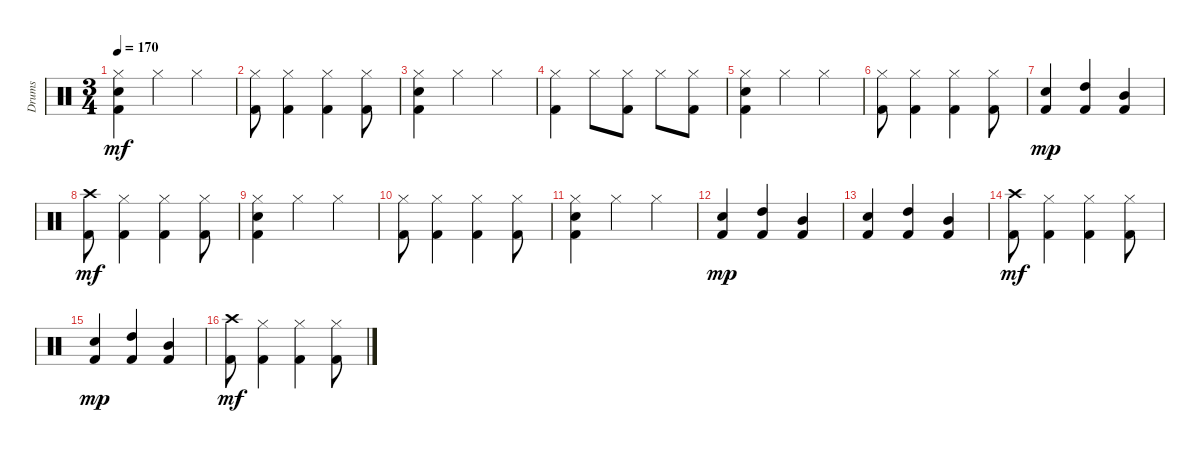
\track ("Drums" "Drums") {instrument percussion}
\staff {score}
\articulation defaults
\ts (3 4)
\tempo 170
\clef neutral
\ks c
("Hi-Hat (closed)" "Snare (hit) 2" "Kick (hit) 2").4{dy mf} "Hi-Hat (closed)".4 "Hi-Hat (closed)".4 |
("Hi-Hat (closed)" "Kick (hit) 2").8 ("Hi-Hat (closed)" "Kick (hit) 2").4 ("Hi-Hat (closed)" "Kick (hit) 2").4 ("Hi-Hat (closed)" "Kick (hit) 2").8 |
("Hi-Hat (closed)" "Snare (hit) 2" "Kick (hit) 2").4 "Hi-Hat (closed)".4 "Hi-Hat (closed)".4 |
("Hi-Hat (closed)" "Kick (hit) 2").4 "Hi-Hat (closed)".8 ("Hi-Hat (closed)" "Kick (hit) 2").8 "Hi-Hat (closed)".8 ("Hi-Hat (closed)" "Kick (hit) 2").8 |
("Hi-Hat (closed)" "Snare (hit) 2" "Kick (hit) 2").4 "Hi-Hat (closed)".4 "Hi-Hat (closed)".4 |
("Hi-Hat (closed)" "Kick (hit) 2").8 ("Hi-Hat (closed)" "Kick (hit) 2").4 ("Hi-Hat (closed)" "Kick (hit) 2").4 ("Hi-Hat (closed)" "Kick (hit) 2").8 |
("Snare (hit) 2" "Kick (hit) 2").4{dy mp} ("High Tom (hit)" "Kick (hit) 2").4 ("Mid Tom (hit)" "Kick (hit) 2").4 |
("Crash high (hit)" "Kick (hit) 2").8{dy mf} ("Hi-Hat (closed)" "Kick (hit) 2").4 ("Hi-Hat (closed)" "Kick (hit) 2").4 ("Hi-Hat (closed)" "Kick (hit) 2").8 |
("Hi-Hat (closed)" "Snare (hit) 2" "Kick (hit) 2").4 "Hi-Hat (closed)".4 "Hi-Hat (closed)".4 |
("Hi-Hat (closed)" "Kick (hit) 2").8 ("Hi-Hat (closed)" "Kick (hit) 2").4 ("Hi-Hat (closed)" "Kick (hit) 2").4 ("Hi-Hat (closed)" "Kick (hit) 2").8 |
("Hi-Hat (closed)" "Snare (hit) 2" "Kick (hit) 2").4 "Hi-Hat (closed)".4 "Hi-Hat (closed)".4 |
("Snare (hit) 2" "Kick (hit) 2").4{dy mp} ("High Tom (hit)" "Kick (hit) 2").4 ("Mid Tom (hit)" "Kick (hit) 2").4 |
("Snare (hit) 2" "Kick (hit) 2").4 ("High Tom (hit)" "Kick (hit) 2").4 ("Mid Tom (hit)" "Kick (hit) 2").4 |
("Crash high (hit)" "Kick (hit) 2").8{dy mf} ("Hi-Hat (closed)" "Kick (hit) 2").4 ("Hi-Hat (closed)" "Kick (hit) 2").4 ("Hi-Hat (closed)" "Kick (hit) 2").8 |
("Snare (hit) 2" "Kick (hit) 2").4{dy mp} ("High Tom (hit)" "Kick (hit) 2").4 ("Mid Tom (hit)" "Kick (hit) 2").4 |
("Crash high (hit)" "Kick (hit) 2").8{dy mf} ("Hi-Hat (closed)" "Kick (hit) 2").4 ("Hi-Hat (closed)" "Kick (hit) 2").4 ("Hi-Hat (closed)" "Kick (hit) 2").8
